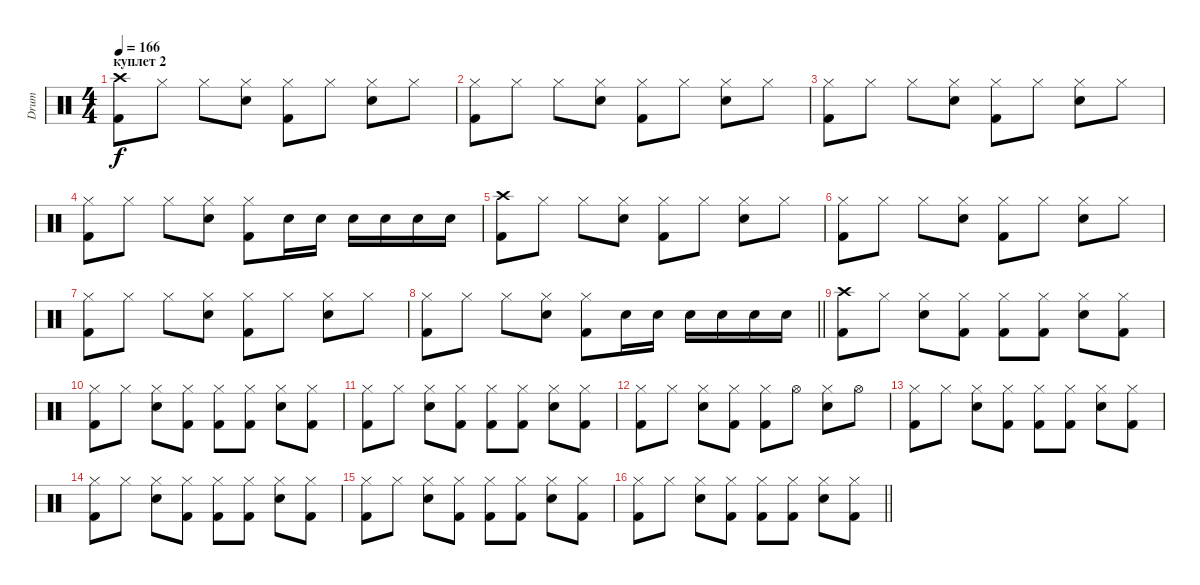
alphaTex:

\track ("Drum" "Drum") {instrument percussion}
\staff {score}
\articulation defaults
\ts (4 4)
\section ("" "куплет 2")
\tempo 166
\clef neutral
\ks c
("Crash high (hit)" "Kick (hit) 2").8{dy f} "Hi-Hat (closed)".8 "Hi-Hat (closed)".8 ("Snare (hit) 2" "Hi-Hat (closed)").8 ("Kick (hit) 2" "Hi-Hat (closed)").8 "Hi-Hat (closed)".8 ("Snare (hit) 2" "Hi-Hat (closed)").8 "Hi-Hat (closed)".8 |
("Kick (hit) 2" "Hi-Hat (closed)").8 "Hi-Hat (closed)".8 "Hi-Hat (closed)".8 ("Snare (hit) 2" "Hi-Hat (closed)").8 ("Kick (hit) 2" "Hi-Hat (closed)").8 "Hi-Hat (closed)".8 ("Snare (hit) 2" "Hi-Hat (closed)").8 "Hi-Hat (closed)".8 |
("Kick (hit) 2" "Hi-Hat (closed)").8 "Hi-Hat (closed)".8 "Hi-Hat (closed)".8 ("Snare (hit) 2" "Hi-Hat (closed)").8 ("Kick (hit) 2" "Hi-Hat (closed)").8 "Hi-Hat (closed)".8 ("Snare (hit) 2" "Hi-Hat (closed)").8 "Hi-Hat (closed)".8 |
("Kick (hit) 2" "Hi-Hat (closed)").8 "Hi-Hat (closed)".8 "Hi-Hat (closed)".8 ("Snare (hit) 2" "Hi-Hat (closed)").8 ("Kick (hit) 2" "Hi-Hat (closed)").8 "Snare (hit) 2".16 "Snare (hit) 2".16 "Snare (hit) 2".16 "Snare (hit) 2".16 "Snare (hit) 2".16 "Snare (hit) 2".16 |
("Crash high (hit)" "Kick (hit) 2").8 "Hi-Hat (closed)".8 "Hi-Hat (closed)".8 ("Snare (hit) 2" "Hi-Hat (closed)").8 ("Kick (hit) 2" "Hi-Hat (closed)").8 "Hi-Hat (closed)".8 ("Snare (hit) 2" "Hi-Hat (closed)").8 "Hi-Hat (closed)".8 |
("Kick (hit) 2" "Hi-Hat (closed)").8 "Hi-Hat (closed)".8 "Hi-Hat (closed)".8 ("Snare (hit) 2" "Hi-Hat (closed)").8 ("Kick (hit) 2" "Hi-Hat (closed)").8 "Hi-Hat (closed)".8 ("Snare (hit) 2" "Hi-Hat (closed)").8 "Hi-Hat (closed)".8 |
("Kick (hit) 2" "Hi-Hat (closed)").8 "Hi-Hat (closed)".8 "Hi-Hat (closed)".8 ("Snare (hit) 2" "Hi-Hat (closed)").8 ("Kick (hit) 2" "Hi-Hat (closed)").8 "Hi-Hat (closed)".8 ("Snare (hit) 2" "Hi-Hat (closed)").8 "Hi-Hat (closed)".8 |
\barLineRight lightlight
("Kick (hit) 2" "Hi-Hat (closed)").8 "Hi-Hat (closed)".8 "Hi-Hat (closed)".8 ("Snare (hit) 2" "Hi-Hat (closed)").8 ("Kick (hit) 2" "Hi-Hat (closed)").8 "Snare (hit) 2".16 "Snare (hit) 2".16 "Snare (hit) 2".16 "Snare (hit) 2".16 "Snare (hit) 2".16 "Snare (hit) 2".16 |
\section ("" "")
("Crash high (hit)" "Kick (hit) 2").8 "Hi-Hat (closed)".8 ("Hi-Hat (closed)" "Snare (hit) 2").8 ("Hi-Hat (closed)" "Kick (hit) 2").8 ("Hi-Hat (closed)" "Kick (hit) 2").8 ("Hi-Hat (closed)" "Kick (hit) 2").8 ("Hi-Hat (closed)" "Snare (hit) 2").8 ("Hi-Hat (closed)" "Kick (hit) 2").8 |
("Hi-Hat (closed)" "Kick (hit) 2").8 "Hi-Hat (closed)".8 ("Hi-Hat (closed)" "Snare (hit) 2").8 ("Hi-Hat (closed)" "Kick (hit) 2").8 ("Hi-Hat (closed)" "Kick (hit) 2").8 ("Hi-Hat (closed)" "Kick (hit) 2").8 ("Hi-Hat (closed)" "Snare (hit) 2").8 ("Hi-Hat (closed)" "Kick (hit) 2").8 |
("Hi-Hat (closed)" "Kick (hit) 2").8 "Hi-Hat (closed)".8 ("Hi-Hat (closed)" "Snare (hit) 2").8 ("Hi-Hat (closed)" "Kick (hit) 2").8 ("Hi-Hat (closed)" "Kick (hit) 2").8 ("Hi-Hat (closed)" "Kick (hit) 2").8 ("Hi-Hat (closed)" "Snare (hit) 2").8 ("Hi-Hat (closed)" "Kick (hit) 2").8 |
("Hi-Hat (closed)" "Kick (hit) 2").8 "Hi-Hat (closed)".8 ("Hi-Hat (closed)" "Snare (hit) 2").8 ("Hi-Hat (closed)" "Kick (hit) 2").8 ("Hi-Hat (closed)" "Kick (hit) 2").8 "Hi-Hat (open)".8 ("Hi-Hat (closed)" "Snare (hit) 2").8 "Hi-Hat (open)".8 |
("Hi-Hat (closed)" "Kick (hit) 2").8 "Hi-Hat (closed)".8 ("Hi-Hat (closed)" "Snare (hit) 2").8 ("Hi-Hat (closed)" "Kick (hit) 2").8 ("Hi-Hat (closed)" "Kick (hit) 2").8 ("Hi-Hat (closed)" "Kick (hit) 2").8 ("Hi-Hat (closed)" "Snare (hit) 2").8 ("Hi-Hat (closed)" "Kick (hit) 2").8 |
("Hi-Hat (closed)" "Kick (hit) 2").8 "Hi-Hat (closed)".8 ("Hi-Hat (closed)" "Snare (hit) 2").8 ("Hi-Hat (closed)" "Kick (hit) 2").8 ("Hi-Hat (closed)" "Kick (hit) 2").8 ("Hi-Hat (closed)" "Kick (hit) 2").8 ("Hi-Hat (closed)" "Snare (hit) 2").8 ("Hi-Hat (closed)" "Kick (hit) 2").8 |
("Hi-Hat (closed)" "Kick (hit) 2").8 "Hi-Hat (closed)".8 ("Hi-Hat (closed)" "Snare (hit) 2").8 ("Hi-Hat (closed)" "Kick (hit) 2").8 ("Hi-Hat (closed)" "Kick (hit) 2").8 ("Hi-Hat (closed)" "Kick (hit) 2").8 ("Hi-Hat (closed)" "Snare (hit) 2").8 ("Hi-Hat (closed)" "Kick (hit) 2").8 |
\barLineRight lightlight
("Hi-Hat (closed)" "Kick (hit) 2").8 "Hi-Hat (closed)".8 ("Hi-Hat (closed)" "Snare (hit) 2").8 ("Hi-Hat (closed)" "Kick (hit) 2").8 ("Hi-Hat (closed)" "Kick (hit) 2").8 ("Hi-Hat (closed)" "Kick (hit) 2").8 ("Hi-Hat (closed)" "Snare (hit) 2").8 ("Hi-Hat (closed)" "Kick (hit) 2").8
